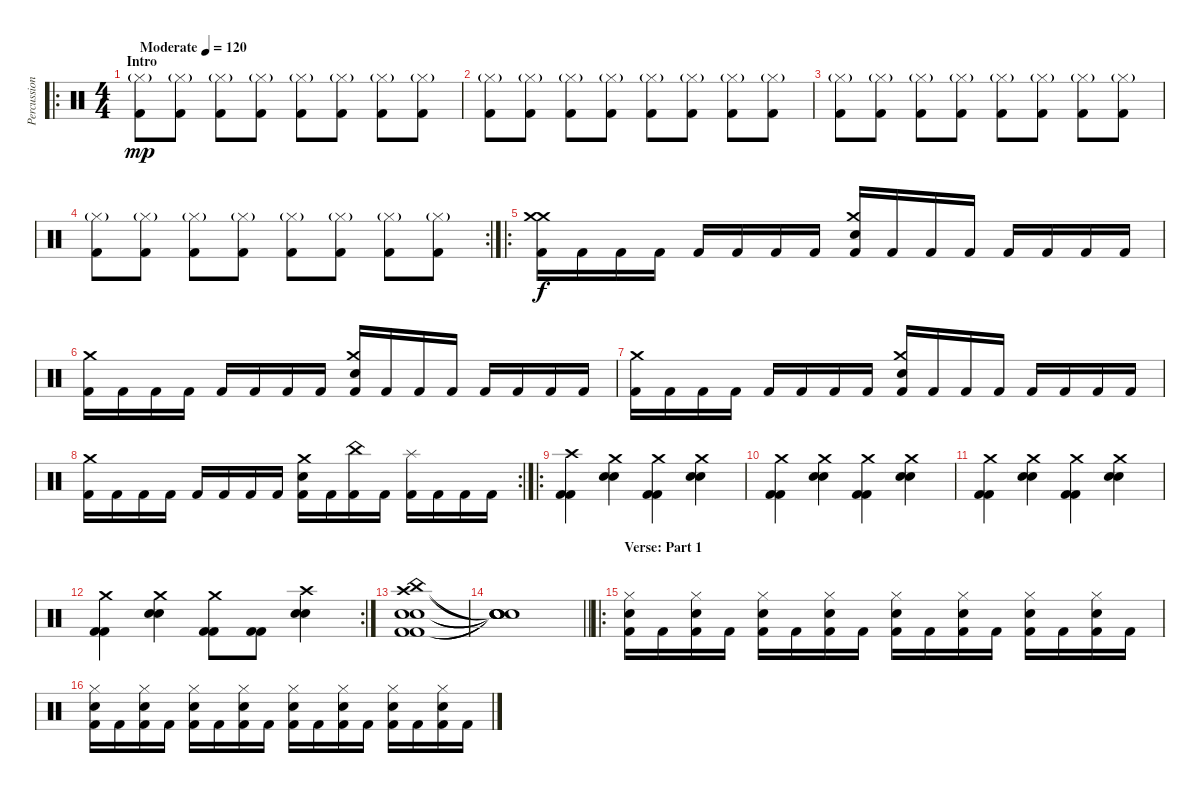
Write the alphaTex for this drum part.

\track ("Percussions" "Percussion") {instrument percussion}
\staff {score}
\articulation defaults
\ro
\ts (4 4)
\section ("" "Intro")
\tempo (120 "Moderate")
\clef neutral
\ks c
("Hi-Hat (closed)"{g} "Kick (hit) 2").8{dy mp} ("Hi-Hat (closed)"{g} "Kick (hit) 2").8 ("Hi-Hat (closed)"{g} "Kick (hit) 2").8 ("Hi-Hat (closed)"{g} "Kick (hit) 2").8 ("Hi-Hat (closed)"{g} "Kick (hit) 2").8 ("Hi-Hat (closed)"{g} "Kick (hit) 2").8 ("Hi-Hat (closed)"{g} "Kick (hit) 2").8 ("Hi-Hat (closed)"{g} "Kick (hit) 2").8 |
("Hi-Hat (closed)"{g} "Kick (hit) 2").8 ("Hi-Hat (closed)"{g} "Kick (hit) 2").8 ("Hi-Hat (closed)"{g} "Kick (hit) 2").8 ("Hi-Hat (closed)"{g} "Kick (hit) 2").8 ("Hi-Hat (closed)"{g} "Kick (hit) 2").8 ("Hi-Hat (closed)"{g} "Kick (hit) 2").8 ("Hi-Hat (closed)"{g} "Kick (hit) 2").8 ("Hi-Hat (closed)"{g} "Kick (hit) 2").8 |
("Hi-Hat (closed)"{g} "Kick (hit) 2").8 ("Hi-Hat (closed)"{g} "Kick (hit) 2").8 ("Hi-Hat (closed)"{g} "Kick (hit) 2").8 ("Hi-Hat (closed)"{g} "Kick (hit) 2").8 ("Hi-Hat (closed)"{g} "Kick (hit) 2").8 ("Hi-Hat (closed)"{g} "Kick (hit) 2").8 ("Hi-Hat (closed)"{g} "Kick (hit) 2").8 ("Hi-Hat (closed)"{g} "Kick (hit) 2").8 |
\rc 2
("Hi-Hat (closed)"{g} "Kick (hit) 2").8 ("Hi-Hat (closed)"{g} "Kick (hit) 2").8 ("Hi-Hat (closed)"{g} "Kick (hit) 2").8 ("Hi-Hat (closed)"{g} "Kick (hit) 2").8 ("Hi-Hat (closed)"{g} "Kick (hit) 2").8 ("Hi-Hat (closed)"{g} "Kick (hit) 2").8 ("Hi-Hat (closed)"{g} "Kick (hit) 2").8 ("Hi-Hat (closed)"{g} "Kick (hit) 2").8 |
\ro
("Crash medium (hit)" "Crash medium (hit)" "Kick (hit) 2").16{dy f} "Kick (hit) 2".16 "Kick (hit) 2".16 "Kick (hit) 2".16 "Kick (hit) 2".16 "Kick (hit) 2".16 "Kick (hit) 2".16 "Kick (hit) 2".16 ("Crash medium (hit)" "Snare (hit) 2" "Kick (hit) 2").16 "Kick (hit) 2".16 "Kick (hit) 2".16 "Kick (hit) 2".16 "Kick (hit) 2".16 "Kick (hit) 2".16 "Kick (hit) 2".16 "Kick (hit) 2".16 |
("Crash medium (hit)" "Kick (hit) 2").16 "Kick (hit) 2".16 "Kick (hit) 2".16 "Kick (hit) 2".16 "Kick (hit) 2".16 "Kick (hit) 2".16 "Kick (hit) 2".16 "Kick (hit) 2".16 ("Crash medium (hit)" "Snare (hit) 2" "Kick (hit) 2").16 "Kick (hit) 2".16 "Kick (hit) 2".16 "Kick (hit) 2".16 "Kick (hit) 2".16 "Kick (hit) 2".16 "Kick (hit) 2".16 "Kick (hit) 2".16 |
("Crash medium (hit)" "Kick (hit) 2").16 "Kick (hit) 2".16 "Kick (hit) 2".16 "Kick (hit) 2".16 "Kick (hit) 2".16 "Kick (hit) 2".16 "Kick (hit) 2".16 "Kick (hit) 2".16 ("Crash medium (hit)" "Snare (hit) 2" "Kick (hit) 2").16 "Kick (hit) 2".16 "Kick (hit) 2".16 "Kick (hit) 2".16 "Kick (hit) 2".16 "Kick (hit) 2".16 "Kick (hit) 2".16 "Kick (hit) 2".16 |
\rc 2
("Crash medium (hit)" "Kick (hit) 2").16 "Kick (hit) 2".16 "Kick (hit) 2".16 "Kick (hit) 2".16 "Kick (hit) 2".16 "Kick (hit) 2".16 "Kick (hit) 2".16 "Kick (hit) 2".16 ("Crash medium (hit)" "Snare (hit) 2" "Kick (hit) 2").16 "Kick (hit) 2".16 ("China (hit)" "Kick (hit) 2").16 "Kick (hit) 2".16 ("Splash (hit)" "Kick (hit) 2").16 "Kick (hit) 2".16 "Kick (hit) 2".16 "Kick (hit) 2".16 |
\ro
("Crash high (hit)" "Kick (hit) 2" "Kick (hit) 2").4 ("Crash medium (hit)" "Snare (hit) 2" "Electric Snare (hit)").4 ("Crash medium (hit)" "Kick (hit) 2" "Kick (hit) 2").4 ("Crash medium (hit)" "Snare (hit) 2" "Electric Snare (hit)").4 |
("Crash medium (hit)" "Kick (hit) 2" "Kick (hit) 2").4 ("Crash medium (hit)" "Snare (hit) 2" "Electric Snare (hit)").4 ("Crash medium (hit)" "Kick (hit) 2" "Kick (hit) 2").4 ("Crash medium (hit)" "Snare (hit) 2" "Electric Snare (hit)").4 |
("Crash medium (hit)" "Kick (hit) 2" "Kick (hit) 2").4 ("Crash medium (hit)" "Snare (hit) 2" "Electric Snare (hit)").4 ("Crash medium (hit)" "Kick (hit) 2" "Kick (hit) 2").4 ("Crash medium (hit)" "Snare (hit) 2" "Electric Snare (hit)").4 |
\rc 2
("Crash medium (hit)" "Kick (hit) 2" "Kick (hit) 2").4 ("Crash medium (hit)" "Snare (hit) 2" "Electric Snare (hit)").4 ("Crash medium (hit)" "Kick (hit) 2" "Kick (hit) 2").8 ("Kick (hit) 2" "Kick (hit) 2").8 ("Crash high (hit)" "Snare (hit) 2" "Electric Snare (hit)").4 |
("Crash high (hit)" "China (hit)" "Snare (hit) 2" "Electric Snare (hit)" "Kick (hit) 2" "Kick (hit) 2").1 |
\barLineRight lightlight
("Snare (hit)"{t} "Snare (hit)"{t} "Snare (hit)"{t} "Snare (hit)"{t} "Snare (hit)"{t} "Snare (hit)"{t}).1 |
\ro
\section ("" "Verse: Part 1")
("Hi-Hat (closed)" "Snare (hit) 2" "Kick (hit) 2").16 "Kick (hit) 2".16 ("Hi-Hat (closed)" "Snare (hit) 2" "Kick (hit) 2").16 "Kick (hit) 2".16 ("Hi-Hat (closed)" "Snare (hit) 2" "Kick (hit) 2").16 "Kick (hit) 2".16 ("Hi-Hat (closed)" "Snare (hit) 2" "Kick (hit) 2").16 "Kick (hit) 2".16 ("Hi-Hat (closed)" "Snare (hit) 2" "Kick (hit) 2").16 "Kick (hit) 2".16 ("Hi-Hat (closed)" "Snare (hit) 2" "Kick (hit) 2").16 "Kick (hit) 2".16 ("Hi-Hat (closed)" "Snare (hit) 2" "Kick (hit) 2").16 "Kick (hit) 2".16 ("Hi-Hat (closed)" "Snare (hit) 2" "Kick (hit) 2").16 "Kick (hit) 2".16 |
("Hi-Hat (closed)" "Snare (hit) 2" "Kick (hit) 2").16 "Kick (hit) 2".16 ("Hi-Hat (closed)" "Snare (hit) 2" "Kick (hit) 2").16 "Kick (hit) 2".16 ("Hi-Hat (closed)" "Snare (hit) 2" "Kick (hit) 2").16 "Kick (hit) 2".16 ("Hi-Hat (closed)" "Snare (hit) 2" "Kick (hit) 2").16 "Kick (hit) 2".16 ("Hi-Hat (closed)" "Snare (hit) 2" "Kick (hit) 2").16 "Kick (hit) 2".16 ("Hi-Hat (closed)" "Snare (hit) 2" "Kick (hit) 2").16 "Kick (hit) 2".16 ("Hi-Hat (closed)" "Snare (hit) 2" "Kick (hit) 2").16 "Kick (hit) 2".16 ("Hi-Hat (closed)" "Snare (hit) 2" "Kick (hit) 2").16 "Kick (hit) 2".16
